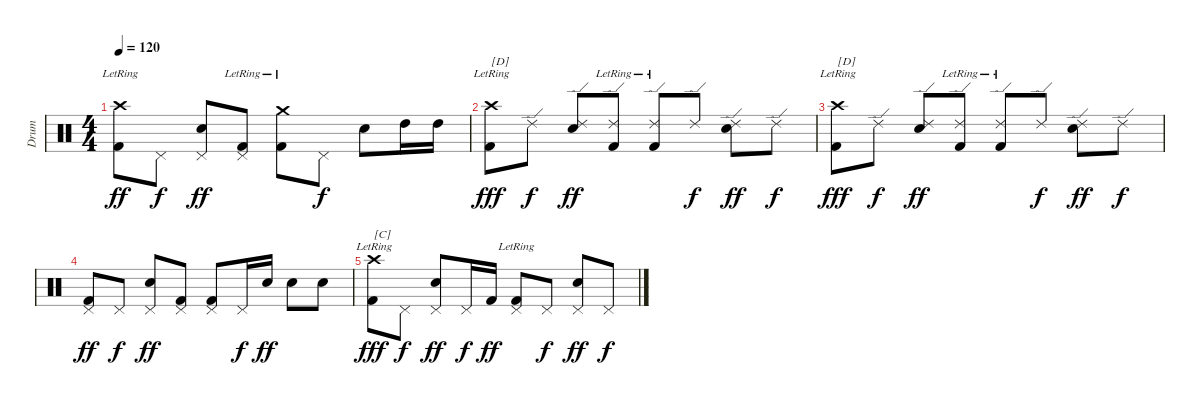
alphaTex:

\track ("Drum" "Drum") {instrument percussion}
\staff {score}
\articulation defaults
\ts (4 4)
\tempo 120
\clef neutral
\ks c
("Crash high (hit)" "Kick (hit) 2"{lr}).8{dy ff} "Pedal Hi-Hat (hit)".8{dy f} ("Pedal Hi-Hat (hit)" "Snare (hit) 2").8{dy ff} ("Pedal Hi-Hat (hit)" "Kick (hit) 2"{lr}).8 ("Crash medium (hit)" "Kick (hit) 2"{lr}).8 "Pedal Hi-Hat (hit)".8{dy f} "Snare (hit) 2".8 "High Tom (hit)".16 "High Tom (hit)".16 |
("Crash high (hit)"{lr} "Kick (hit) 2"{lr}).8{txt "[D]" dy fff} "Ride (edge) 2".8{dy f} ("Ride (edge) 2" "Snare (hit) 2").8{dy ff} ("Ride (edge) 2" "Kick (hit) 2"{lr}).8 ("Ride (edge) 2" "Kick (hit) 2"{lr}).8 "Ride (edge) 2".8{dy f} ("Ride (edge) 2" "Snare (hit) 2").8{dy ff} "Ride (edge) 2".8{dy f} |
("Crash high (hit)"{lr} "Kick (hit) 2"{lr}).8{txt "[D]" dy fff} "Ride (edge) 2".8{dy f} ("Ride (edge) 2" "Snare (hit) 2").8{dy ff} ("Ride (edge) 2" "Kick (hit) 2"{lr}).8 ("Ride (edge) 2" "Kick (hit) 2"{lr}).8 "Ride (edge) 2".8{dy f} ("Ride (edge) 2" "Snare (hit) 2").8{dy ff} "Ride (edge) 2".8{dy f} |
("Pedal Hi-Hat (hit)" "Kick (hit) 2").8{dy ff} "Pedal Hi-Hat (hit)".8{dy f} ("Pedal Hi-Hat (hit)" "Snare (hit) 2").8{dy ff} ("Pedal Hi-Hat (hit)" "Kick (hit) 2").8 ("Pedal Hi-Hat (hit)" "Kick (hit) 2").8 "Pedal Hi-Hat (hit)".16{dy f} "Snare (hit) 2".16{dy ff} "Snare (hit) 2".8 "Snare (hit) 2".8 |
("Crash high (hit)"{lr} "Kick (hit) 2"{lr}).8{txt "[C]" dy fff} "Pedal Hi-Hat (hit)".8{dy f} ("Pedal Hi-Hat (hit)" "Snare (hit) 2").8{dy ff} "Pedal Hi-Hat (hit)".16{dy f} "Kick (hit) 2".16{dy ff} ("Pedal Hi-Hat (hit)" "Kick (hit) 2"{lr}).8 "Pedal Hi-Hat (hit)".8{dy f} ("Pedal Hi-Hat (hit)" "Snare (hit) 2").8{dy ff} "Pedal Hi-Hat (hit)".8{dy f}
